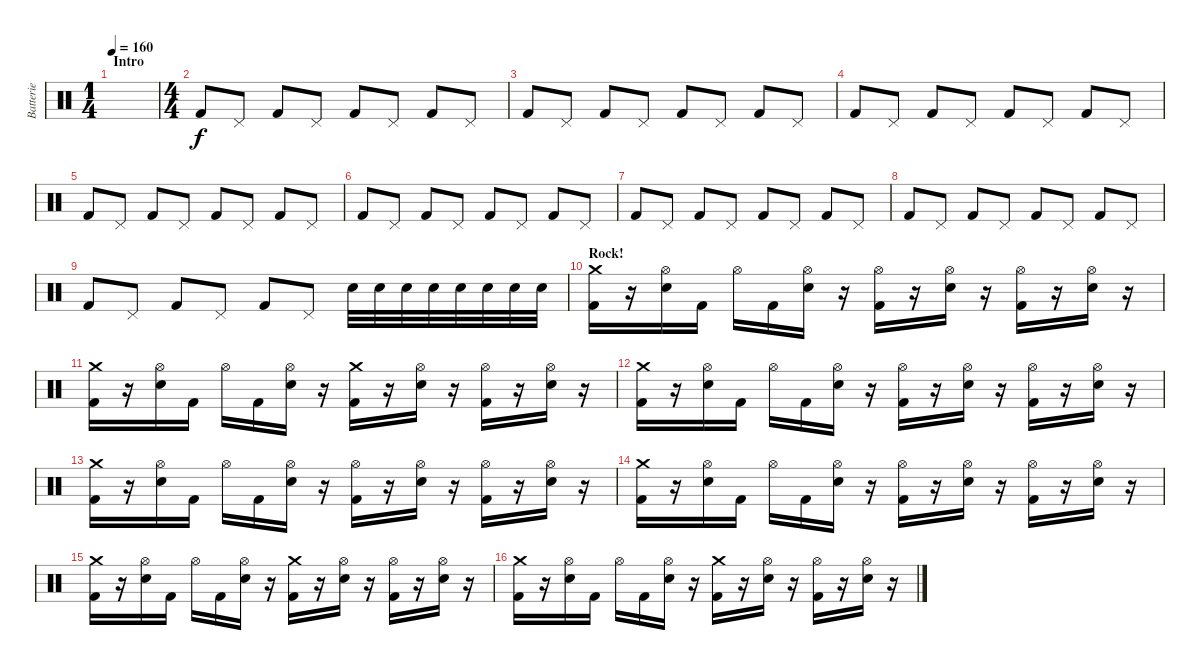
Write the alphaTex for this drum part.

\track ("Batterie" "Batterie") {instrument percussion}
\staff {score}
\articulation defaults
\ts (1 4)
\section ("" "Intro")
\tempo 160
\clef neutral
\ks c
|
\ts (4 4)
"Kick (hit) 2".8 "Pedal Hi-Hat (hit)".8 "Kick (hit) 2".8 "Pedal Hi-Hat (hit)".8 "Kick (hit) 2".8 "Pedal Hi-Hat (hit)".8 "Kick (hit) 2".8 "Pedal Hi-Hat (hit)".8 |
"Kick (hit) 2".8 "Pedal Hi-Hat (hit)".8 "Kick (hit) 2".8 "Pedal Hi-Hat (hit)".8 "Kick (hit) 2".8 "Pedal Hi-Hat (hit)".8 "Kick (hit) 2".8 "Pedal Hi-Hat (hit)".8 |
"Kick (hit) 2".8 "Pedal Hi-Hat (hit)".8 "Kick (hit) 2".8 "Pedal Hi-Hat (hit)".8 "Kick (hit) 2".8 "Pedal Hi-Hat (hit)".8 "Kick (hit) 2".8 "Pedal Hi-Hat (hit)".8 |
"Kick (hit) 2".8 "Pedal Hi-Hat (hit)".8 "Kick (hit) 2".8 "Pedal Hi-Hat (hit)".8 "Kick (hit) 2".8 "Pedal Hi-Hat (hit)".8 "Kick (hit) 2".8 "Pedal Hi-Hat (hit)".8 |
"Kick (hit) 2".8 "Pedal Hi-Hat (hit)".8 "Kick (hit) 2".8 "Pedal Hi-Hat (hit)".8 "Kick (hit) 2".8 "Pedal Hi-Hat (hit)".8 "Kick (hit) 2".8 "Pedal Hi-Hat (hit)".8 |
"Kick (hit) 2".8 "Pedal Hi-Hat (hit)".8 "Kick (hit) 2".8 "Pedal Hi-Hat (hit)".8 "Kick (hit) 2".8 "Pedal Hi-Hat (hit)".8 "Kick (hit) 2".8 "Pedal Hi-Hat (hit)".8 |
"Kick (hit) 2".8 "Pedal Hi-Hat (hit)".8 "Kick (hit) 2".8 "Pedal Hi-Hat (hit)".8 "Kick (hit) 2".8 "Pedal Hi-Hat (hit)".8 "Kick (hit) 2".8 "Pedal Hi-Hat (hit)".8 |
"Kick (hit) 2".8 "Pedal Hi-Hat (hit)".8 "Kick (hit) 2".8 "Pedal Hi-Hat (hit)".8 "Kick (hit) 2".8 "Pedal Hi-Hat (hit)".8 "Snare (hit) 2".32 "Snare (hit) 2".32 "Snare (hit) 2".32 "Snare (hit) 2".32 "Snare (hit) 2".32 "Snare (hit) 2".32 "Snare (hit) 2".32 "Snare (hit) 2".32 |
\section ("" "Rock!")
("Crash medium (hit)" "Kick (hit) 2").16 r.16 ("Hi-Hat (open)" "Electric Snare (hit)").16 "Kick (hit) 2".16 "Hi-Hat (open)".16 "Kick (hit) 2".16 ("Hi-Hat (open)" "Electric Snare (hit)").16 r.16 ("Hi-Hat (open)" "Kick (hit) 2").16 r.16 ("Hi-Hat (open)" "Electric Snare (hit)").16 r.16 ("Hi-Hat (open)" "Kick (hit) 2").16 r.16 ("Hi-Hat (open)" "Electric Snare (hit)").16 r.16 |
("Crash medium (hit)" "Kick (hit) 2").16 r.16 ("Hi-Hat (open)" "Electric Snare (hit)").16 "Kick (hit) 2".16 "Hi-Hat (open)".16 "Kick (hit) 2".16 ("Hi-Hat (open)" "Electric Snare (hit)").16 r.16 ("Crash medium (hit)" "Kick (hit) 2").16 r.16 ("Hi-Hat (open)" "Electric Snare (hit)").16 r.16 ("Hi-Hat (open)" "Kick (hit) 2").16 r.16 ("Hi-Hat (open)" "Electric Snare (hit)").16 r.16 |
("Crash medium (hit)" "Kick (hit) 2").16 r.16 ("Hi-Hat (open)" "Electric Snare (hit)").16 "Kick (hit) 2".16 "Hi-Hat (open)".16 "Kick (hit) 2".16 ("Hi-Hat (open)" "Electric Snare (hit)").16 r.16 ("Hi-Hat (open)" "Kick (hit) 2").16 r.16 ("Hi-Hat (open)" "Electric Snare (hit)").16 r.16 ("Hi-Hat (open)" "Kick (hit) 2").16 r.16 ("Hi-Hat (open)" "Electric Snare (hit)").16 r.16 |
("Crash medium (hit)" "Kick (hit) 2").16 r.16 ("Hi-Hat (open)" "Electric Snare (hit)").16 "Kick (hit) 2".16 "Hi-Hat (open)".16 "Kick (hit) 2".16 ("Hi-Hat (open)" "Electric Snare (hit)").16 r.16 ("Hi-Hat (open)" "Kick (hit) 2").16 r.16 ("Hi-Hat (open)" "Electric Snare (hit)").16 r.16 ("Hi-Hat (open)" "Kick (hit) 2").16 r.16 ("Hi-Hat (open)" "Electric Snare (hit)").16 r.16 |
("Crash medium (hit)" "Kick (hit) 2").16 r.16 ("Hi-Hat (open)" "Electric Snare (hit)").16 "Kick (hit) 2".16 "Hi-Hat (open)".16 "Kick (hit) 2".16 ("Hi-Hat (open)" "Electric Snare (hit)").16 r.16 ("Hi-Hat (open)" "Kick (hit) 2").16 r.16 ("Hi-Hat (open)" "Electric Snare (hit)").16 r.16 ("Hi-Hat (open)" "Kick (hit) 2").16 r.16 ("Hi-Hat (open)" "Electric Snare (hit)").16 r.16 |
("Crash medium (hit)" "Kick (hit) 2").16 r.16 ("Hi-Hat (open)" "Electric Snare (hit)").16 "Kick (hit) 2".16 "Hi-Hat (open)".16 "Kick (hit) 2".16 ("Hi-Hat (open)" "Electric Snare (hit)").16 r.16 ("Crash medium (hit)" "Kick (hit) 2").16 r.16 ("Hi-Hat (open)" "Electric Snare (hit)").16 r.16 ("Hi-Hat (open)" "Kick (hit) 2").16 r.16 ("Hi-Hat (open)" "Electric Snare (hit)").16 r.16 |
("Crash medium (hit)" "Kick (hit) 2").16 r.16 ("Hi-Hat (open)" "Electric Snare (hit)").16 "Kick (hit) 2".16 "Hi-Hat (open)".16 "Kick (hit) 2".16 ("Hi-Hat (open)" "Electric Snare (hit)").16 r.16 ("Crash medium (hit)" "Kick (hit) 2").16 r.16 ("Hi-Hat (open)" "Electric Snare (hit)").16 r.16 ("Hi-Hat (open)" "Kick (hit) 2").16 r.16 ("Hi-Hat (open)" "Electric Snare (hit)").16 r.16
